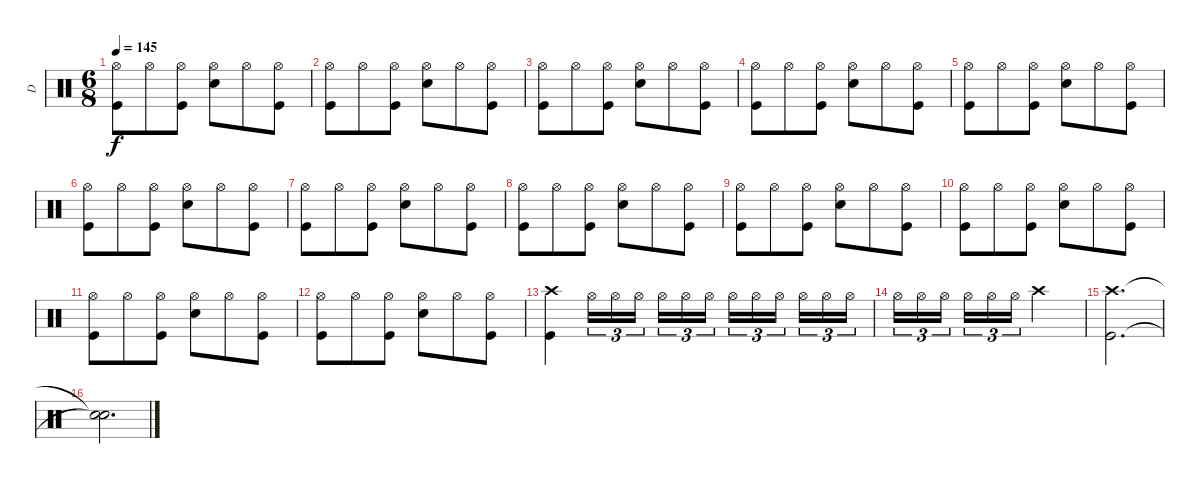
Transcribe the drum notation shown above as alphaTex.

\track ("D" "D") {instrument percussion}
\staff {score}
\articulation defaults
\ts (6 8)
\tempo 145
\clef neutral
\ks c
("Hi-Hat (open)" "Kick (hit)").8{dy f} "Hi-Hat (open)".8 ("Hi-Hat (open)" "Kick (hit)").8 ("Hi-Hat (open)" "Snare (hit) 2").8 "Hi-Hat (open)".8 ("Hi-Hat (open)" "Kick (hit)").8 |
("Hi-Hat (open)" "Kick (hit)").8 "Hi-Hat (open)".8 ("Hi-Hat (open)" "Kick (hit)").8 ("Hi-Hat (open)" "Snare (hit) 2").8 "Hi-Hat (open)".8 ("Hi-Hat (open)" "Kick (hit)").8 |
("Hi-Hat (open)" "Kick (hit)").8 "Hi-Hat (open)".8 ("Hi-Hat (open)" "Kick (hit)").8 ("Hi-Hat (open)" "Snare (hit) 2").8 "Hi-Hat (open)".8 ("Hi-Hat (open)" "Kick (hit)").8 |
("Hi-Hat (open)" "Kick (hit)").8 "Hi-Hat (open)".8 ("Hi-Hat (open)" "Kick (hit)").8 ("Hi-Hat (open)" "Snare (hit) 2").8 "Hi-Hat (open)".8 ("Hi-Hat (open)" "Kick (hit)").8 |
("Hi-Hat (open)" "Kick (hit)").8 "Hi-Hat (open)".8 ("Hi-Hat (open)" "Kick (hit)").8 ("Hi-Hat (open)" "Snare (hit) 2").8 "Hi-Hat (open)".8 ("Hi-Hat (open)" "Kick (hit)").8 |
("Hi-Hat (open)" "Kick (hit)").8 "Hi-Hat (open)".8 ("Hi-Hat (open)" "Kick (hit)").8 ("Hi-Hat (open)" "Snare (hit) 2").8 "Hi-Hat (open)".8 ("Hi-Hat (open)" "Kick (hit)").8 |
("Hi-Hat (open)" "Kick (hit)").8 "Hi-Hat (open)".8 ("Hi-Hat (open)" "Kick (hit)").8 ("Hi-Hat (open)" "Snare (hit) 2").8 "Hi-Hat (open)".8 ("Hi-Hat (open)" "Kick (hit)").8 |
("Hi-Hat (open)" "Kick (hit)").8 "Hi-Hat (open)".8 ("Hi-Hat (open)" "Kick (hit)").8 ("Hi-Hat (open)" "Snare (hit) 2").8 "Hi-Hat (open)".8 ("Hi-Hat (open)" "Kick (hit)").8 |
("Hi-Hat (open)" "Kick (hit)").8 "Hi-Hat (open)".8 ("Hi-Hat (open)" "Kick (hit)").8 ("Hi-Hat (open)" "Snare (hit) 2").8 "Hi-Hat (open)".8 ("Hi-Hat (open)" "Kick (hit)").8 |
("Hi-Hat (open)" "Kick (hit)").8 "Hi-Hat (open)".8 ("Hi-Hat (open)" "Kick (hit)").8 ("Hi-Hat (open)" "Snare (hit) 2").8 "Hi-Hat (open)".8 ("Hi-Hat (open)" "Kick (hit)").8 |
("Hi-Hat (open)" "Kick (hit)").8 "Hi-Hat (open)".8 ("Hi-Hat (open)" "Kick (hit)").8 ("Hi-Hat (open)" "Snare (hit) 2").8 "Hi-Hat (open)".8 ("Hi-Hat (open)" "Kick (hit)").8 |
("Hi-Hat (open)" "Kick (hit)").8 "Hi-Hat (open)".8 ("Hi-Hat (open)" "Kick (hit)").8 ("Hi-Hat (open)" "Snare (hit) 2").8 "Hi-Hat (open)".8 ("Hi-Hat (open)" "Kick (hit)").8 |
("Crash high (hit)" "Kick (hit)").4 "Hi-Hat (open)".16{tu (3 2)} "Hi-Hat (open)".16{tu (3 2)} "Hi-Hat (open)".16{tu (3 2)} "Hi-Hat (open)".16{tu (3 2)} "Hi-Hat (open)".16{tu (3 2)} "Hi-Hat (open)".16{tu (3 2) beam splitsecondary} "Hi-Hat (open)".16{tu (3 2)} "Hi-Hat (open)".16{tu (3 2)} "Hi-Hat (open)".16{tu (3 2) beam splitsecondary} "Hi-Hat (open)".16{tu (3 2)} "Hi-Hat (open)".16{tu (3 2)} "Hi-Hat (open)".16{tu (3 2)} |
"Hi-Hat (open)".16{tu (3 2)} "Hi-Hat (open)".16{tu (3 2)} "Hi-Hat (open)".16{tu (3 2) beam splitsecondary} "Hi-Hat (open)".16{tu (3 2)} "Hi-Hat (open)".16{tu (3 2)} "Hi-Hat (open)".16{tu (3 2)} "Crash high (hit)".2 |
("Crash high (hit)" "Kick (hit)").2{d} |
("Snare (hit)"{t} "Snare (hit)"{t}).2{d}
